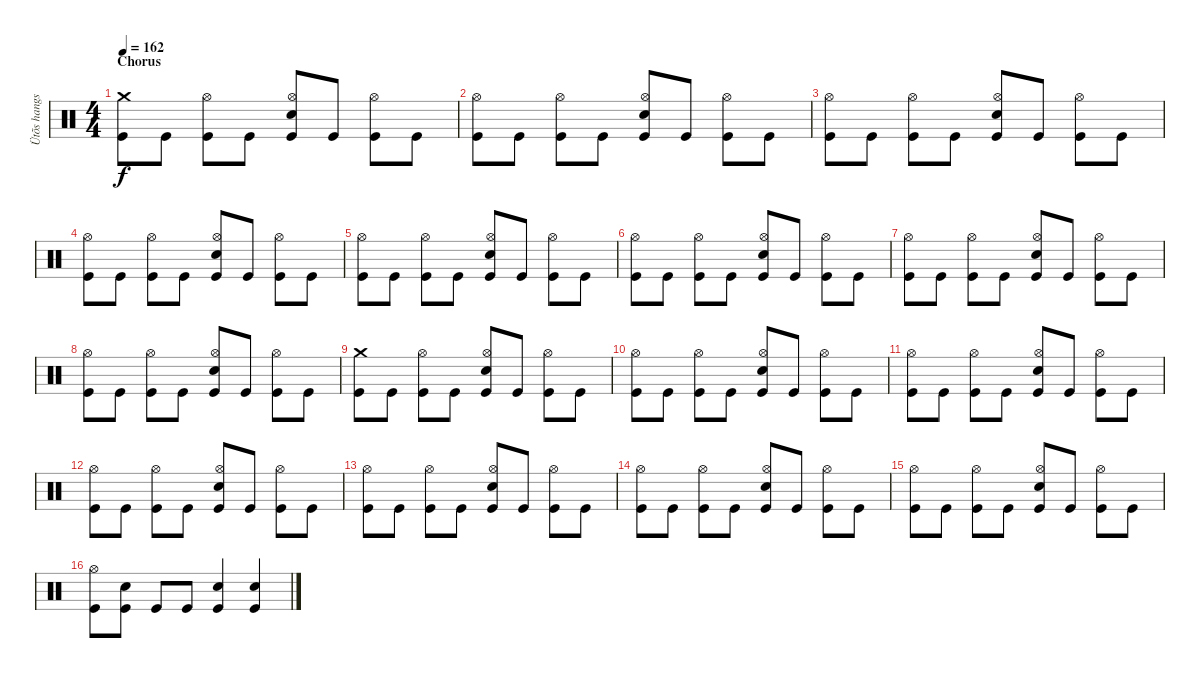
\track ("Ütõs hangszer" "Ütõs hangs") {instrument percussion}
\staff {score}
\articulation defaults
\ts (4 4)
\section ("" "Chorus")
\tempo 162
\clef neutral
\ks c
("Crash medium (hit)" "Kick (hit)").8{dy f} "Kick (hit)".8 ("Hi-Hat (open)" "Kick (hit)").8 "Kick (hit)".8 ("Hi-Hat (open)" "Electric Snare (hit)" "Kick (hit)").8 "Kick (hit)".8 ("Hi-Hat (open)" "Kick (hit)").8 "Kick (hit)".8 |
("Hi-Hat (open)" "Kick (hit)").8 "Kick (hit)".8 ("Hi-Hat (open)" "Kick (hit)").8 "Kick (hit)".8 ("Hi-Hat (open)" "Electric Snare (hit)" "Kick (hit)").8 "Kick (hit)".8 ("Hi-Hat (open)" "Kick (hit)").8 "Kick (hit)".8 |
("Hi-Hat (open)" "Kick (hit)").8 "Kick (hit)".8 ("Hi-Hat (open)" "Kick (hit)").8 "Kick (hit)".8 ("Hi-Hat (open)" "Electric Snare (hit)" "Kick (hit)").8 "Kick (hit)".8 ("Hi-Hat (open)" "Kick (hit)").8 "Kick (hit)".8 |
("Hi-Hat (open)" "Kick (hit)").8 "Kick (hit)".8 ("Hi-Hat (open)" "Kick (hit)").8 "Kick (hit)".8 ("Hi-Hat (open)" "Electric Snare (hit)" "Kick (hit)").8 "Kick (hit)".8 ("Hi-Hat (open)" "Kick (hit)").8 "Kick (hit)".8 |
("Hi-Hat (open)" "Kick (hit)").8 "Kick (hit)".8 ("Hi-Hat (open)" "Kick (hit)").8 "Kick (hit)".8 ("Hi-Hat (open)" "Electric Snare (hit)" "Kick (hit)").8 "Kick (hit)".8 ("Hi-Hat (open)" "Kick (hit)").8 "Kick (hit)".8 |
("Hi-Hat (open)" "Kick (hit)").8 "Kick (hit)".8 ("Hi-Hat (open)" "Kick (hit)").8 "Kick (hit)".8 ("Hi-Hat (open)" "Electric Snare (hit)" "Kick (hit)").8 "Kick (hit)".8 ("Hi-Hat (open)" "Kick (hit)").8 "Kick (hit)".8 |
("Hi-Hat (open)" "Kick (hit)").8 "Kick (hit)".8 ("Hi-Hat (open)" "Kick (hit)").8 "Kick (hit)".8 ("Hi-Hat (open)" "Electric Snare (hit)" "Kick (hit)").8 "Kick (hit)".8 ("Hi-Hat (open)" "Kick (hit)").8 "Kick (hit)".8 |
("Hi-Hat (open)" "Kick (hit)").8 "Kick (hit)".8 ("Hi-Hat (open)" "Kick (hit)").8 "Kick (hit)".8 ("Hi-Hat (open)" "Electric Snare (hit)" "Kick (hit)").8 "Kick (hit)".8 ("Hi-Hat (open)" "Kick (hit)").8 "Kick (hit)".8 |
("Crash medium (hit)" "Kick (hit)").8 "Kick (hit)".8 ("Hi-Hat (open)" "Kick (hit)").8 "Kick (hit)".8 ("Hi-Hat (open)" "Electric Snare (hit)" "Kick (hit)").8 "Kick (hit)".8 ("Hi-Hat (open)" "Kick (hit)").8 "Kick (hit)".8 |
("Hi-Hat (open)" "Kick (hit)").8 "Kick (hit)".8 ("Hi-Hat (open)" "Kick (hit)").8 "Kick (hit)".8 ("Hi-Hat (open)" "Electric Snare (hit)" "Kick (hit)").8 "Kick (hit)".8 ("Hi-Hat (open)" "Kick (hit)").8 "Kick (hit)".8 |
("Hi-Hat (open)" "Kick (hit)").8 "Kick (hit)".8 ("Hi-Hat (open)" "Kick (hit)").8 "Kick (hit)".8 ("Hi-Hat (open)" "Electric Snare (hit)" "Kick (hit)").8 "Kick (hit)".8 ("Hi-Hat (open)" "Kick (hit)").8 "Kick (hit)".8 |
("Hi-Hat (open)" "Kick (hit)").8 "Kick (hit)".8 ("Hi-Hat (open)" "Kick (hit)").8 "Kick (hit)".8 ("Hi-Hat (open)" "Electric Snare (hit)" "Kick (hit)").8 "Kick (hit)".8 ("Hi-Hat (open)" "Kick (hit)").8 "Kick (hit)".8 |
("Hi-Hat (open)" "Kick (hit)").8 "Kick (hit)".8 ("Hi-Hat (open)" "Kick (hit)").8 "Kick (hit)".8 ("Hi-Hat (open)" "Electric Snare (hit)" "Kick (hit)").8 "Kick (hit)".8 ("Hi-Hat (open)" "Kick (hit)").8 "Kick (hit)".8 |
("Hi-Hat (open)" "Kick (hit)").8 "Kick (hit)".8 ("Hi-Hat (open)" "Kick (hit)").8 "Kick (hit)".8 ("Hi-Hat (open)" "Electric Snare (hit)" "Kick (hit)").8 "Kick (hit)".8 ("Hi-Hat (open)" "Kick (hit)").8 "Kick (hit)".8 |
("Hi-Hat (open)" "Kick (hit)").8 "Kick (hit)".8 ("Hi-Hat (open)" "Kick (hit)").8 "Kick (hit)".8 ("Hi-Hat (open)" "Electric Snare (hit)" "Kick (hit)").8 "Kick (hit)".8 ("Hi-Hat (open)" "Kick (hit)").8 "Kick (hit)".8 |
("Hi-Hat (open)" "Kick (hit)").8 ("Electric Snare (hit)" "Kick (hit)").8 "Kick (hit)".8 "Kick (hit)".8 ("Electric Snare (hit)" "Kick (hit)").4 ("Electric Snare (hit)" "Kick (hit)").4
